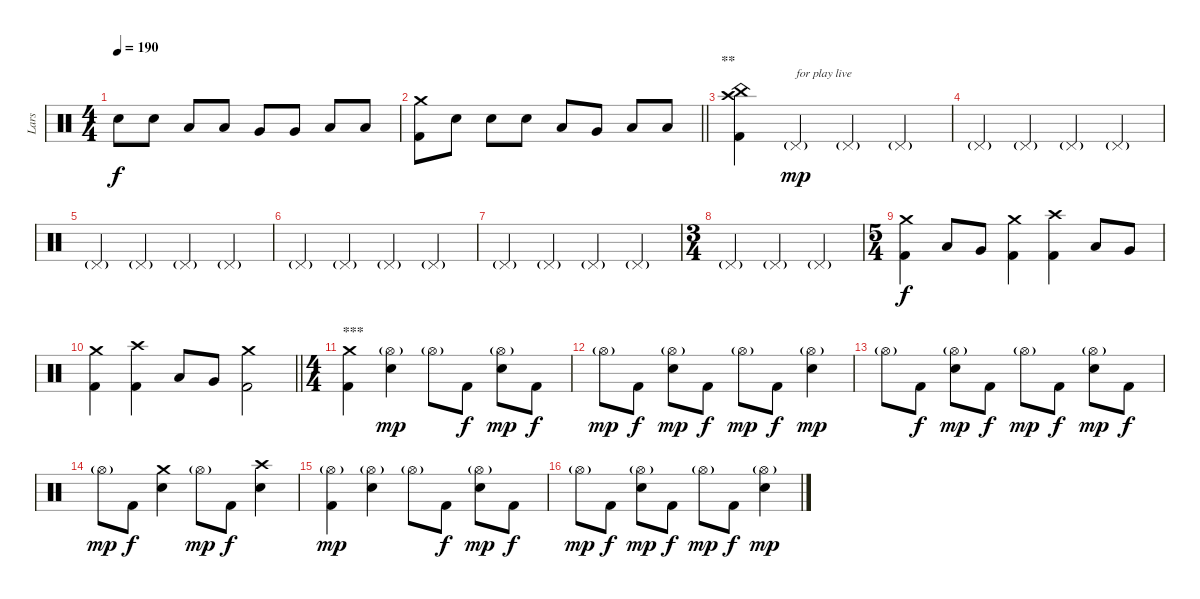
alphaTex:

\track ("Lars" "Lars") {instrument percussion}
\staff {score}
\articulation defaults
\ts (4 4)
\tempo 190
\clef neutral
\ks c "Electric Snare (hit)".8{dy f} "Electric Snare (hit)".8 "Low Tom (hit)".8 "Low Tom (hit)".8 "Very Low Tom (hit)".8 "Very Low Tom (hit)".8 "Low Floor Tom (hit)".8 "Low Floor Tom (hit)".8
|
\barLineRight lightlight
("Crash medium (hit)" "Kick (hit) 2").8 "Electric Snare (hit)".8 "Electric Snare (hit)".8 "Electric Snare (hit)".8 "Low Tom (hit)".8 "Very Low Tom (hit)".8 "Low Floor Tom (hit)".8 "Low Floor Tom (hit)".8 |
\section ("" "**")
("Crash high (hit)" "China (hit)" "Kick (hit) 2").4 "Pedal Hi-Hat (hit)"{g}.4{txt "for play live" dy mp} "Pedal Hi-Hat (hit)"{g}.4 "Pedal Hi-Hat (hit)"{g}.4 |
"Pedal Hi-Hat (hit)"{g}.4 "Pedal Hi-Hat (hit)"{g}.4 "Pedal Hi-Hat (hit)"{g}.4 "Pedal Hi-Hat (hit)"{g}.4 |
"Pedal Hi-Hat (hit)"{g}.4 "Pedal Hi-Hat (hit)"{g}.4 "Pedal Hi-Hat (hit)"{g}.4 "Pedal Hi-Hat (hit)"{g}.4 |
"Pedal Hi-Hat (hit)"{g}.4 "Pedal Hi-Hat (hit)"{g}.4 "Pedal Hi-Hat (hit)"{g}.4 "Pedal Hi-Hat (hit)"{g}.4 |
"Pedal Hi-Hat (hit)"{g}.4 "Pedal Hi-Hat (hit)"{g}.4 "Pedal Hi-Hat (hit)"{g}.4 "Pedal Hi-Hat (hit)"{g}.4 |
\ts (3 4)
"Pedal Hi-Hat (hit)"{g}.4 "Pedal Hi-Hat (hit)"{g}.4 "Pedal Hi-Hat (hit)"{g}.4 |
\ts (5 4)
("Crash medium (hit)" "Kick (hit) 2").4{dy f} "Low Tom (hit)".8 "Very Low Tom (hit)".8 ("Crash medium (hit)" "Kick (hit) 2").4 ("Crash high (hit)" "Kick (hit) 2").4 "Low Tom (hit)".8 "Very Low Tom (hit)".8 |
\barLineRight lightlight
("Crash medium (hit)" "Kick (hit) 2").4 ("Crash high (hit)" "Kick (hit) 2").4 "Low Tom (hit)".8 "Very Low Tom (hit)".8 ("Crash medium (hit)" "Kick (hit) 2").2 |
\ts (4 4)
\section ("" "***")
("Crash medium (hit)" "Kick (hit) 2").4 ("Hi-Hat (open)"{g} "Electric Snare (hit)").4{dy mp} "Hi-Hat (open)"{g}.8 "Kick (hit) 2".8{dy f} ("Hi-Hat (open)"{g} "Electric Snare (hit)").8{dy mp} "Kick (hit) 2".8{dy f} |
"Hi-Hat (open)"{g}.8{dy mp} "Kick (hit) 2".8{dy f} ("Hi-Hat (open)"{g} "Electric Snare (hit)").8{dy mp} "Kick (hit) 2".8{dy f} "Hi-Hat (open)"{g}.8{dy mp} "Kick (hit) 2".8{dy f} ("Hi-Hat (open)"{g} "Electric Snare (hit)").4{dy mp} |
"Hi-Hat (open)"{g}.8 "Kick (hit) 2".8{dy f} ("Hi-Hat (open)"{g} "Electric Snare (hit)").8{dy mp} "Kick (hit) 2".8{dy f} "Hi-Hat (open)"{g}.8{dy mp} "Kick (hit) 2".8{dy f} ("Hi-Hat (open)"{g} "Electric Snare (hit)").8{dy mp} "Kick (hit) 2".8{dy f} |
"Hi-Hat (open)"{g}.8{dy mp} "Kick (hit) 2".8{dy f} ("Crash medium (hit)" "Electric Snare (hit)").4 "Hi-Hat (open)"{g}.8{dy mp} "Kick (hit) 2".8{dy f} ("Crash high (hit)" "Electric Snare (hit)").4 |
("Hi-Hat (open)"{g} "Kick (hit) 2").4{dy mp} ("Hi-Hat (open)"{g} "Electric Snare (hit)").4 "Hi-Hat (open)"{g}.8 "Kick (hit) 2".8{dy f} ("Hi-Hat (open)"{g} "Electric Snare (hit)").8{dy mp} "Kick (hit) 2".8{dy f} |
"Hi-Hat (open)"{g}.8{dy mp} "Kick (hit) 2".8{dy f} ("Hi-Hat (open)"{g} "Electric Snare (hit)").8{dy mp} "Kick (hit) 2".8{dy f} "Hi-Hat (open)"{g}.8{dy mp} "Kick (hit) 2".8{dy f} ("Hi-Hat (open)"{g} "Electric Snare (hit)").4{dy mp}
